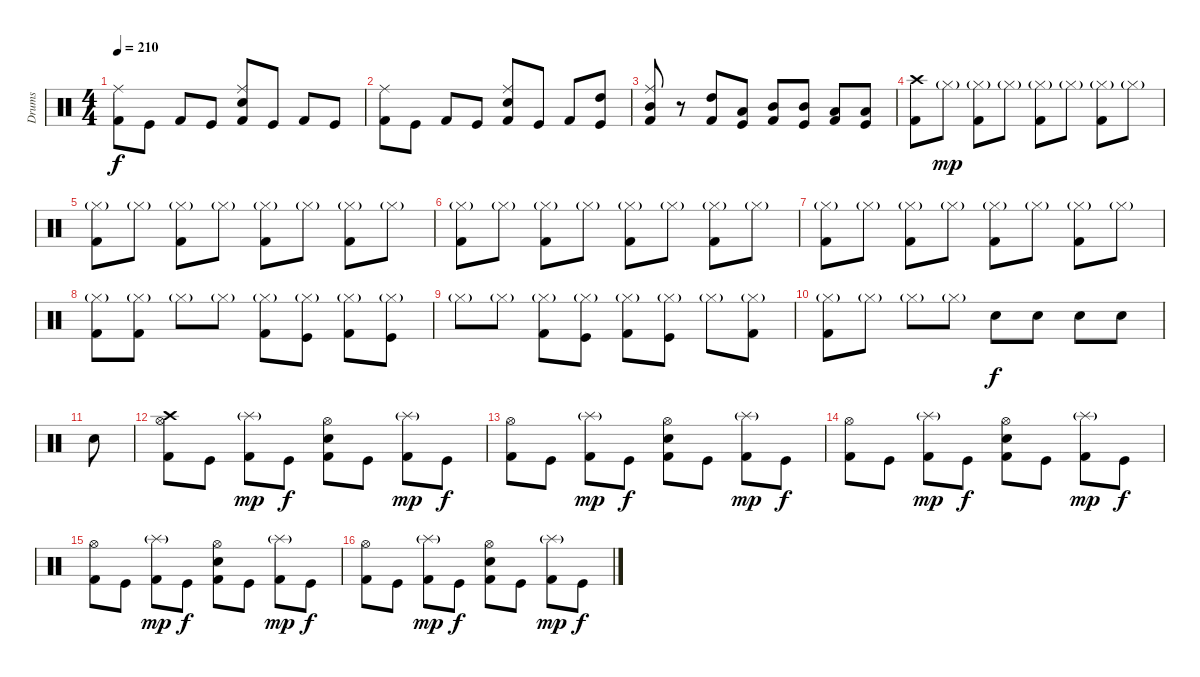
\track ("Drums" "Drums") {instrument percussion}
\staff {score}
\articulation defaults
\ts (4 4)
\tempo 210
\clef neutral
\ks c
("Kick (hit) 2" "Ride (middle)").8{dy f} "Kick (hit)".8 "Kick (hit) 2".8 "Kick (hit)".8 ("Kick (hit) 2" "Electric Snare (hit)" "Ride (middle)").8 "Kick (hit)".8 "Kick (hit) 2".8 "Kick (hit)".8 |
("Kick (hit) 2" "Ride (middle)").8 "Kick (hit)".8 "Kick (hit) 2".8 "Kick (hit)".8 ("Kick (hit) 2" "Electric Snare (hit)" "Ride (middle)").8 "Kick (hit)".8 "Kick (hit) 2".8 ("Kick (hit)" "High Tom (hit)").8 |
("Kick (hit) 2" "Mid Tom (hit)" "Ride (middle)").8 r.8 ("Kick (hit) 2" "High Tom (hit)").8 ("Kick (hit)" "Low Tom (hit)").8 ("Kick (hit) 2" "Mid Tom (hit)").8 ("Kick (hit)" "Mid Tom (hit)").8 ("Kick (hit) 2" "Low Tom (hit)").8 ("Kick (hit)" "Low Tom (hit)").8 |
("Kick (hit) 2" "Crash high (hit)").8 "Hi-Hat (closed)"{g}.8{dy mp} ("Kick (hit) 2" "Hi-Hat (closed)"{g}).8 "Hi-Hat (closed)"{g}.8 ("Kick (hit) 2" "Hi-Hat (closed)"{g}).8 "Hi-Hat (closed)"{g}.8 ("Kick (hit) 2" "Hi-Hat (closed)"{g}).8 "Hi-Hat (closed)"{g}.8 |
("Kick (hit) 2" "Hi-Hat (closed)"{g}).8 "Hi-Hat (closed)"{g}.8 ("Kick (hit) 2" "Hi-Hat (closed)"{g}).8 "Hi-Hat (closed)"{g}.8 ("Kick (hit) 2" "Hi-Hat (closed)"{g}).8 "Hi-Hat (closed)"{g}.8 ("Kick (hit) 2" "Hi-Hat (closed)"{g}).8 "Hi-Hat (closed)"{g}.8 |
("Kick (hit) 2" "Hi-Hat (closed)"{g}).8 "Hi-Hat (closed)"{g}.8 ("Kick (hit) 2" "Hi-Hat (closed)"{g}).8 "Hi-Hat (closed)"{g}.8 ("Kick (hit) 2" "Hi-Hat (closed)"{g}).8 "Hi-Hat (closed)"{g}.8 ("Kick (hit) 2" "Hi-Hat (closed)"{g}).8 "Hi-Hat (closed)"{g}.8 |
("Kick (hit) 2" "Hi-Hat (closed)"{g}).8 "Hi-Hat (closed)"{g}.8 ("Kick (hit) 2" "Hi-Hat (closed)"{g}).8 "Hi-Hat (closed)"{g}.8 ("Kick (hit) 2" "Hi-Hat (closed)"{g}).8 "Hi-Hat (closed)"{g}.8 ("Kick (hit) 2" "Hi-Hat (closed)"{g}).8 "Hi-Hat (closed)"{g}.8 |
("Kick (hit) 2" "Hi-Hat (closed)"{g}).8 ("Kick (hit) 2" "Hi-Hat (closed)"{g}).8 "Hi-Hat (closed)"{g}.8 "Hi-Hat (closed)"{g}.8 ("Kick (hit) 2" "Hi-Hat (closed)"{g}).8 ("Kick (hit)" "Hi-Hat (closed)"{g}).8 ("Kick (hit) 2" "Hi-Hat (closed)"{g}).8 ("Kick (hit)" "Hi-Hat (closed)"{g}).8 |
"Hi-Hat (closed)"{g}.8 "Hi-Hat (closed)"{g}.8 ("Kick (hit) 2" "Hi-Hat (closed)"{g}).8 ("Kick (hit)" "Hi-Hat (closed)"{g}).8 ("Kick (hit) 2" "Hi-Hat (closed)"{g}).8 ("Kick (hit)" "Hi-Hat (closed)"{g}).8 "Hi-Hat (closed)"{g}.8 ("Kick (hit) 2" "Hi-Hat (closed)"{g}).8 |
("Kick (hit) 2" "Hi-Hat (closed)"{g}).8 "Hi-Hat (closed)"{g}.8 "Hi-Hat (closed)"{g}.8 "Hi-Hat (closed)"{g}.8 "Electric Snare (hit)".8{dy f} "Electric Snare (hit)".8 "Electric Snare (hit)".8 "Electric Snare (hit)".8 |
"Electric Snare (hit)".8 |
("Kick (hit) 2" "Crash high (hit)" "Hi-Hat (open)").8 "Kick (hit)".8 ("Kick (hit) 2" "Splash (hit)"{g}).8{dy mp} "Kick (hit)".8{dy f} ("Kick (hit) 2" "Electric Snare (hit)" "Hi-Hat (open)").8 "Kick (hit)".8 ("Kick (hit) 2" "Splash (hit)"{g}).8{dy mp} "Kick (hit)".8{dy f} |
("Kick (hit) 2" "Hi-Hat (open)").8 "Kick (hit)".8 ("Kick (hit) 2" "Splash (hit)"{g}).8{dy mp} "Kick (hit)".8{dy f} ("Kick (hit) 2" "Electric Snare (hit)" "Hi-Hat (open)").8 "Kick (hit)".8 ("Kick (hit) 2" "Splash (hit)"{g}).8{dy mp} "Kick (hit)".8{dy f} |
("Kick (hit) 2" "Hi-Hat (open)").8 "Kick (hit)".8 ("Kick (hit) 2" "Splash (hit)"{g}).8{dy mp} "Kick (hit)".8{dy f} ("Kick (hit) 2" "Electric Snare (hit)" "Hi-Hat (open)").8 "Kick (hit)".8 ("Kick (hit) 2" "Splash (hit)"{g}).8{dy mp} "Kick (hit)".8{dy f} |
("Kick (hit) 2" "Hi-Hat (open)").8 "Kick (hit)".8 ("Kick (hit) 2" "Splash (hit)"{g}).8{dy mp} "Kick (hit)".8{dy f} ("Kick (hit) 2" "Electric Snare (hit)" "Hi-Hat (open)").8 "Kick (hit)".8 ("Kick (hit) 2" "Splash (hit)"{g}).8{dy mp} "Kick (hit)".8{dy f} |
("Kick (hit) 2" "Hi-Hat (open)").8 "Kick (hit)".8 ("Kick (hit) 2" "Splash (hit)"{g}).8{dy mp} "Kick (hit)".8{dy f} ("Kick (hit) 2" "Electric Snare (hit)" "Hi-Hat (open)").8 "Kick (hit)".8 ("Kick (hit) 2" "Splash (hit)"{g}).8{dy mp} "Kick (hit)".8{dy f}
